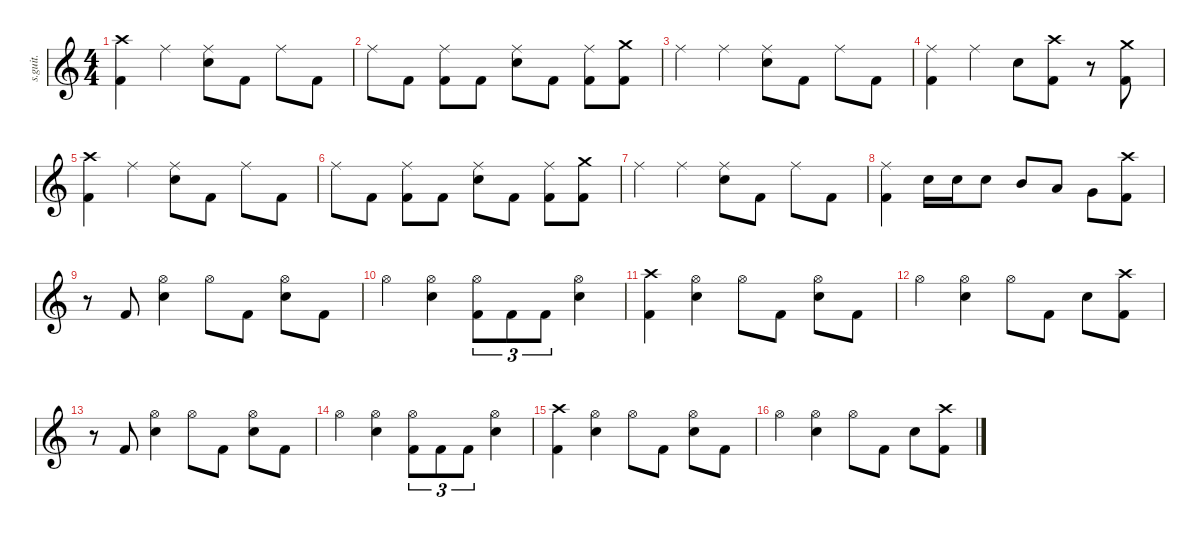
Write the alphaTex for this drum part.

\defaultSystemsLayout 4
\hideDynamics
\bracketExtendMode nobrackets
\track ("Nick Menza (Drums)" "s.guit.") {instrument percussion}
\staff {score}
\articulation defaults
\ts (4 4)
\tempo (196 hide)
\clef g2
\ks c
("Crash high (hit)" "Kick (hit) 2").4{lyrics (0 "") lyrics (1 "") lyrics (2 "") lyrics (3 "") lyrics (4 "") dy f} "Ride (middle)".4{lyrics (0 "") lyrics (1 "") lyrics (2 "") lyrics (3 "") lyrics (4 "")} ("Ride (middle)" "Snare (hit) 2").8{lyrics (0 "") lyrics (1 "") lyrics (2 "") lyrics (3 "") lyrics (4 "")} "Kick (hit) 2".8{lyrics (0 "") lyrics (1 "") lyrics (2 "") lyrics (3 "") lyrics (4 "") dy fff} "Ride (middle)".8{lyrics (0 "") lyrics (1 "") lyrics (2 "") lyrics (3 "") lyrics (4 "") dy f} "Kick (hit) 2".8{lyrics (0 "") lyrics (1 "") lyrics (2 "") lyrics (3 "") lyrics (4 "") dy fff} |
"Ride (middle)".8{lyrics (0 "") lyrics (1 "") lyrics (2 "") lyrics (3 "") lyrics (4 "") dy f} "Kick (hit) 2".8{lyrics (0 "") lyrics (1 "") lyrics (2 "") lyrics (3 "") lyrics (4 "") dy fff} ("Ride (middle)" "Kick (hit) 2").8{lyrics (0 "") lyrics (1 "") lyrics (2 "") lyrics (3 "") lyrics (4 "") dy f} "Kick (hit) 2".8{lyrics (0 "") lyrics (1 "") lyrics (2 "") lyrics (3 "") lyrics (4 "") dy fff} ("Ride (middle)" "Snare (hit) 2").8{lyrics (0 "") lyrics (1 "") lyrics (2 "") lyrics (3 "") lyrics (4 "") dy f} "Kick (hit) 2".8{lyrics (0 "") lyrics (1 "") lyrics (2 "") lyrics (3 "") lyrics (4 "") dy fff} ("Ride (middle)" "Kick (hit) 2").8{lyrics (0 "") lyrics (1 "") lyrics (2 "") lyrics (3 "") lyrics (4 "") dy f} ("Crash medium (hit)" "Kick (hit) 2").8{lyrics (0 "") lyrics (1 "") lyrics (2 "") lyrics (3 "") lyrics (4 "")} |
"Ride (middle)".4{lyrics (0 "") lyrics (1 "") lyrics (2 "") lyrics (3 "") lyrics (4 "")} "Ride (middle)".4{lyrics (0 "") lyrics (1 "") lyrics (2 "") lyrics (3 "") lyrics (4 "")} ("Ride (middle)" "Snare (hit) 2").8{lyrics (0 "") lyrics (1 "") lyrics (2 "") lyrics (3 "") lyrics (4 "")} "Kick (hit) 2".8{lyrics (0 "") lyrics (1 "") lyrics (2 "") lyrics (3 "") lyrics (4 "") dy fff} "Ride (middle)".8{lyrics (0 "") lyrics (1 "") lyrics (2 "") lyrics (3 "") lyrics (4 "") dy f} "Kick (hit) 2".8{lyrics (0 "") lyrics (1 "") lyrics (2 "") lyrics (3 "") lyrics (4 "") dy fff} |
("Ride (middle)" "Kick (hit) 2").4{lyrics (0 "") lyrics (1 "") lyrics (2 "") lyrics (3 "") lyrics (4 "") dy f} "Ride (middle)".4{lyrics (0 "") lyrics (1 "") lyrics (2 "") lyrics (3 "") lyrics (4 "")} "Snare (hit) 2".8{lyrics (0 "") lyrics (1 "") lyrics (2 "") lyrics (3 "") lyrics (4 "")} ("Crash high (hit)" "Kick (hit) 2").8{lyrics (0 "") lyrics (1 "") lyrics (2 "") lyrics (3 "") lyrics (4 "")} r.8 ("Crash medium (hit)" "Kick (hit) 2").8{lyrics (0 "") lyrics (1 "") lyrics (2 "") lyrics (3 "") lyrics (4 "")} |
("Crash high (hit)" "Kick (hit) 2").4{lyrics (0 "") lyrics (1 "") lyrics (2 "") lyrics (3 "") lyrics (4 "")} "Ride (middle)".4{lyrics (0 "") lyrics (1 "") lyrics (2 "") lyrics (3 "") lyrics (4 "")} ("Ride (middle)" "Snare (hit) 2").8{lyrics (0 "") lyrics (1 "") lyrics (2 "") lyrics (3 "") lyrics (4 "")} "Kick (hit) 2".8{lyrics (0 "") lyrics (1 "") lyrics (2 "") lyrics (3 "") lyrics (4 "") dy fff} "Ride (middle)".8{lyrics (0 "") lyrics (1 "") lyrics (2 "") lyrics (3 "") lyrics (4 "") dy f} "Kick (hit) 2".8{lyrics (0 "") lyrics (1 "") lyrics (2 "") lyrics (3 "") lyrics (4 "") dy fff} |
"Ride (middle)".8{lyrics (0 "") lyrics (1 "") lyrics (2 "") lyrics (3 "") lyrics (4 "") dy f} "Kick (hit) 2".8{lyrics (0 "") lyrics (1 "") lyrics (2 "") lyrics (3 "") lyrics (4 "") dy fff} ("Ride (middle)" "Kick (hit) 2").8{lyrics (0 "") lyrics (1 "") lyrics (2 "") lyrics (3 "") lyrics (4 "") dy f} "Kick (hit) 2".8{lyrics (0 "") lyrics (1 "") lyrics (2 "") lyrics (3 "") lyrics (4 "") dy fff} ("Ride (middle)" "Snare (hit) 2").8{lyrics (0 "") lyrics (1 "") lyrics (2 "") lyrics (3 "") lyrics (4 "") dy f} "Kick (hit) 2".8{lyrics (0 "") lyrics (1 "") lyrics (2 "") lyrics (3 "") lyrics (4 "") dy fff} ("Ride (middle)" "Kick (hit) 2").8{lyrics (0 "") lyrics (1 "") lyrics (2 "") lyrics (3 "") lyrics (4 "") dy f} ("Crash medium (hit)" "Kick (hit) 2").8{lyrics (0 "") lyrics (1 "") lyrics (2 "") lyrics (3 "") lyrics (4 "")} |
"Ride (middle)".4{lyrics (0 "") lyrics (1 "") lyrics (2 "") lyrics (3 "") lyrics (4 "")} "Ride (middle)".4{lyrics (0 "") lyrics (1 "") lyrics (2 "") lyrics (3 "") lyrics (4 "")} ("Ride (middle)" "Snare (hit) 2").8{lyrics (0 "") lyrics (1 "") lyrics (2 "") lyrics (3 "") lyrics (4 "")} "Kick (hit) 2".8{lyrics (0 "") lyrics (1 "") lyrics (2 "") lyrics (3 "") lyrics (4 "") dy fff} "Ride (middle)".8{lyrics (0 "") lyrics (1 "") lyrics (2 "") lyrics (3 "") lyrics (4 "") dy f} "Kick (hit) 2".8{lyrics (0 "") lyrics (1 "") lyrics (2 "") lyrics (3 "") lyrics (4 "") dy fff} |
("Ride (middle)" "Kick (hit) 2").4{lyrics (0 "") lyrics (1 "") lyrics (2 "") lyrics (3 "") lyrics (4 "") dy f} "Snare (hit) 2".16{lyrics (0 "") lyrics (1 "") lyrics (2 "") lyrics (3 "") lyrics (4 "")} "Snare (hit) 2".16{lyrics (0 "") lyrics (1 "") lyrics (2 "") lyrics (3 "") lyrics (4 "")} "Snare (hit) 2".8{lyrics (0 "") lyrics (1 "") lyrics (2 "") lyrics (3 "") lyrics (4 "")} "Mid Tom (hit)".8{lyrics (0 "") lyrics (1 "") lyrics (2 "") lyrics (3 "") lyrics (4 "") dy fff} "Low Tom (hit)".8{lyrics (0 "") lyrics (1 "") lyrics (2 "") lyrics (3 "") lyrics (4 "")} "Very Low Tom (hit)".8{lyrics (0 "") lyrics (1 "") lyrics (2 "") lyrics (3 "") lyrics (4 "") dy f} ("Crash high (hit)" "Kick (hit) 2").8{lyrics (0 "") lyrics (1 "") lyrics (2 "") lyrics (3 "") lyrics (4 "")} |
r.8 "Kick (hit) 2".8{lyrics (0 "") lyrics (1 "") lyrics (2 "") lyrics (3 "") lyrics (4 "") dy fff} ("Hi-Hat (open)" "Snare (hit) 2").4{lyrics (0 "") lyrics (1 "") lyrics (2 "") lyrics (3 "") lyrics (4 "") dy f} "Hi-Hat (open)".8{lyrics (0 "") lyrics (1 "") lyrics (2 "") lyrics (3 "") lyrics (4 "")} "Kick (hit) 2".8{lyrics (0 "") lyrics (1 "") lyrics (2 "") lyrics (3 "") lyrics (4 "") dy fff} ("Hi-Hat (open)" "Snare (hit) 2").8{lyrics (0 "") lyrics (1 "") lyrics (2 "") lyrics (3 "") lyrics (4 "") dy f} "Kick (hit) 2".8{lyrics (0 "") lyrics (1 "") lyrics (2 "") lyrics (3 "") lyrics (4 "") dy fff} |
"Hi-Hat (open)".4{lyrics (0 "") lyrics (1 "") lyrics (2 "") lyrics (3 "") lyrics (4 "") dy f} ("Hi-Hat (open)" "Snare (hit) 2").4{lyrics (0 "") lyrics (1 "") lyrics (2 "") lyrics (3 "") lyrics (4 "")} ("Hi-Hat (open)" "Kick (hit) 2").8{tu (3 2) lyrics (0 "") lyrics (1 "") lyrics (2 "") lyrics (3 "") lyrics (4 "")} "Kick (hit) 2".8{tu (3 2) lyrics (0 "") lyrics (1 "") lyrics (2 "") lyrics (3 "") lyrics (4 "") dy fff} "Kick (hit) 2".8{tu (3 2) lyrics (0 "") lyrics (1 "") lyrics (2 "") lyrics (3 "") lyrics (4 "")} ("Hi-Hat (open)" "Snare (hit) 2").4{lyrics (0 "") lyrics (1 "") lyrics (2 "") lyrics (3 "") lyrics (4 "") dy f} |
("Crash high (hit)" "Kick (hit) 2").4{lyrics (0 "") lyrics (1 "") lyrics (2 "") lyrics (3 "") lyrics (4 "")} ("Hi-Hat (open)" "Snare (hit) 2").4{lyrics (0 "") lyrics (1 "") lyrics (2 "") lyrics (3 "") lyrics (4 "")} "Hi-Hat (open)".8{lyrics (0 "") lyrics (1 "") lyrics (2 "") lyrics (3 "") lyrics (4 "")} "Kick (hit) 2".8{lyrics (0 "") lyrics (1 "") lyrics (2 "") lyrics (3 "") lyrics (4 "") dy fff} ("Hi-Hat (open)" "Snare (hit) 2").8{lyrics (0 "") lyrics (1 "") lyrics (2 "") lyrics (3 "") lyrics (4 "") dy f} "Kick (hit) 2".8{lyrics (0 "") lyrics (1 "") lyrics (2 "") lyrics (3 "") lyrics (4 "") dy fff} |
"Hi-Hat (open)".4{lyrics (0 "") lyrics (1 "") lyrics (2 "") lyrics (3 "") lyrics (4 "") dy f} ("Hi-Hat (open)" "Snare (hit) 2").4{lyrics (0 "") lyrics (1 "") lyrics (2 "") lyrics (3 "") lyrics (4 "")} "Hi-Hat (open)".8{lyrics (0 "") lyrics (1 "") lyrics (2 "") lyrics (3 "") lyrics (4 "")} "Kick (hit) 2".8{lyrics (0 "") lyrics (1 "") lyrics (2 "") lyrics (3 "") lyrics (4 "") dy fff} "Snare (hit) 2".8{lyrics (0 "") lyrics (1 "") lyrics (2 "") lyrics (3 "") lyrics (4 "") dy f} ("Crash high (hit)" "Kick (hit) 2").8{lyrics (0 "") lyrics (1 "") lyrics (2 "") lyrics (3 "") lyrics (4 "")} |
r.8 "Kick (hit) 2".8{lyrics (0 "") lyrics (1 "") lyrics (2 "") lyrics (3 "") lyrics (4 "") dy fff} ("Hi-Hat (open)" "Snare (hit) 2").4{lyrics (0 "") lyrics (1 "") lyrics (2 "") lyrics (3 "") lyrics (4 "") dy f} "Hi-Hat (open)".8{lyrics (0 "") lyrics (1 "") lyrics (2 "") lyrics (3 "") lyrics (4 "")} "Kick (hit) 2".8{lyrics (0 "") lyrics (1 "") lyrics (2 "") lyrics (3 "") lyrics (4 "") dy fff} ("Hi-Hat (open)" "Snare (hit) 2").8{lyrics (0 "") lyrics (1 "") lyrics (2 "") lyrics (3 "") lyrics (4 "") dy f} "Kick (hit) 2".8{lyrics (0 "") lyrics (1 "") lyrics (2 "") lyrics (3 "") lyrics (4 "") dy fff} |
"Hi-Hat (open)".4{lyrics (0 "") lyrics (1 "") lyrics (2 "") lyrics (3 "") lyrics (4 "") dy f} ("Hi-Hat (open)" "Snare (hit) 2").4{lyrics (0 "") lyrics (1 "") lyrics (2 "") lyrics (3 "") lyrics (4 "")} ("Hi-Hat (open)" "Kick (hit) 2").8{tu (3 2) lyrics (0 "") lyrics (1 "") lyrics (2 "") lyrics (3 "") lyrics (4 "")} "Kick (hit) 2".8{tu (3 2) lyrics (0 "") lyrics (1 "") lyrics (2 "") lyrics (3 "") lyrics (4 "") dy fff} "Kick (hit) 2".8{tu (3 2) lyrics (0 "") lyrics (1 "") lyrics (2 "") lyrics (3 "") lyrics (4 "")} ("Hi-Hat (open)" "Snare (hit) 2").4{lyrics (0 "") lyrics (1 "") lyrics (2 "") lyrics (3 "") lyrics (4 "") dy f} |
("Crash high (hit)" "Kick (hit) 2").4{lyrics (0 "") lyrics (1 "") lyrics (2 "") lyrics (3 "") lyrics (4 "")} ("Hi-Hat (open)" "Snare (hit) 2").4{lyrics (0 "") lyrics (1 "") lyrics (2 "") lyrics (3 "") lyrics (4 "")} "Hi-Hat (open)".8{lyrics (0 "") lyrics (1 "") lyrics (2 "") lyrics (3 "") lyrics (4 "")} "Kick (hit) 2".8{lyrics (0 "") lyrics (1 "") lyrics (2 "") lyrics (3 "") lyrics (4 "") dy fff} ("Hi-Hat (open)" "Snare (hit) 2").8{lyrics (0 "") lyrics (1 "") lyrics (2 "") lyrics (3 "") lyrics (4 "") dy f} "Kick (hit) 2".8{lyrics (0 "") lyrics (1 "") lyrics (2 "") lyrics (3 "") lyrics (4 "") dy fff} |
"Hi-Hat (open)".4{lyrics (0 "") lyrics (1 "") lyrics (2 "") lyrics (3 "") lyrics (4 "") dy f} ("Hi-Hat (open)" "Snare (hit) 2").4{lyrics (0 "") lyrics (1 "") lyrics (2 "") lyrics (3 "") lyrics (4 "")} "Hi-Hat (open)".8{lyrics (0 "") lyrics (1 "") lyrics (2 "") lyrics (3 "") lyrics (4 "")} "Kick (hit) 2".8{lyrics (0 "") lyrics (1 "") lyrics (2 "") lyrics (3 "") lyrics (4 "") dy fff} "Snare (hit) 2".8{lyrics (0 "") lyrics (1 "") lyrics (2 "") lyrics (3 "") lyrics (4 "") dy f} ("Crash high (hit)" "Kick (hit) 2").8{lyrics (0 "") lyrics (1 "") lyrics (2 "") lyrics (3 "") lyrics (4 "")}
